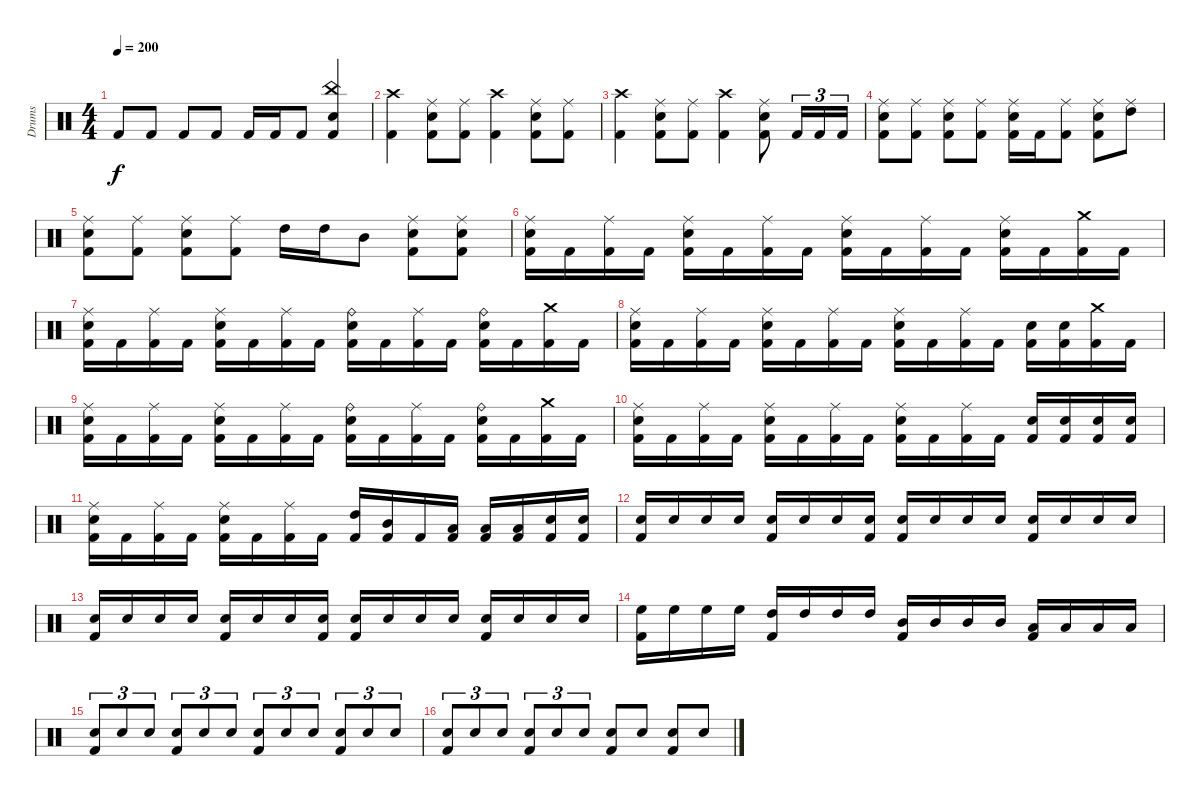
\track ("Drums" "Drums") {instrument percussion}
\staff {score}
\articulation defaults
\ts (4 4)
\tempo 200
\clef neutral
\ks c "Kick (hit) 2".8{dy f} "Kick (hit) 2".8 "Kick (hit) 2".8 "Kick (hit) 2".8 "Kick (hit) 2".16 "Kick (hit) 2".16 "Kick (hit) 2".8
("China (hit)" "Electric Snare (hit)" "Kick (hit) 2").4 |
("Crash high (hit)" "Kick (hit) 2").4 ("Ride (middle)" "Electric Snare (hit)" "Kick (hit) 2").8 ("Ride (middle)" "Kick (hit) 2").8 ("Crash high (hit)" "Kick (hit) 2").4 ("Ride (middle)" "Electric Snare (hit)" "Kick (hit) 2").8 ("Ride (middle)" "Kick (hit) 2").8 |
("Crash high (hit)" "Kick (hit) 2").4 ("Ride (middle)" "Electric Snare (hit)" "Kick (hit) 2").8 ("Ride (middle)" "Kick (hit) 2").8 ("Crash high (hit)" "Kick (hit) 2").4 ("Ride (middle)" "Electric Snare (hit)" "Kick (hit) 2").8 "Kick (hit) 2".16{tu (3 2)} "Kick (hit) 2".16{tu (3 2)} "Kick (hit) 2".16{tu (3 2)} |
("Ride (middle)" "Electric Snare (hit)" "Kick (hit) 2").8 ("Ride (middle)" "Kick (hit) 2").8 ("Ride (middle)" "Electric Snare (hit)" "Kick (hit) 2").8 ("Ride (middle)" "Kick (hit) 2").8 ("Ride (middle)" "Electric Snare (hit)" "Kick (hit) 2").16 "Kick (hit) 2".16 ("Ride (middle)" "Kick (hit) 2").8 ("Ride (middle)" "Electric Snare (hit)" "Kick (hit) 2").8 ("Ride (middle)" "High Tom (hit)").8 |
("Ride (middle)" "Electric Snare (hit)" "Kick (hit) 2").8 ("Ride (middle)" "Kick (hit) 2").8 ("Ride (middle)" "Electric Snare (hit)" "Kick (hit) 2").8 ("Ride (middle)" "Kick (hit) 2").8 "High Tom (hit)".16 "High Tom (hit)".16 "Mid Tom (hit)".8 ("Ride (middle)" "Electric Snare (hit)" "Kick (hit) 2").8 ("Ride (middle)" "Electric Snare (hit)" "Kick (hit) 2").8 |
("Ride (middle)" "Electric Snare (hit)" "Kick (hit) 2").16 "Kick (hit) 2".16 ("Ride (middle)" "Kick (hit) 2").16 "Kick (hit) 2".16 ("Ride (middle)" "Electric Snare (hit)" "Kick (hit) 2").16 "Kick (hit) 2".16 ("Ride (middle)" "Kick (hit) 2").16 "Kick (hit) 2".16 ("Ride (middle)" "Electric Snare (hit)" "Kick (hit) 2").16 "Kick (hit) 2".16 ("Ride (middle)" "Kick (hit) 2").16 "Kick (hit) 2".16 ("Ride (middle)" "Electric Snare (hit)" "Kick (hit) 2").16 "Kick (hit) 2".16 ("Crash medium (hit)" "Kick (hit) 2").16 "Kick (hit) 2".16 |
("Ride (middle)" "Electric Snare (hit)" "Kick (hit) 2").16 "Kick (hit) 2".16 ("Ride (middle)" "Kick (hit) 2").16 "Kick (hit) 2".16 ("Ride (middle)" "Electric Snare (hit)" "Kick (hit) 2").16 "Kick (hit) 2".16 ("Ride (middle)" "Kick (hit) 2").16 "Kick (hit) 2".16 ("Ride (bell)" "Electric Snare (hit)" "Kick (hit) 2").16 "Kick (hit) 2".16 ("Ride (middle)" "Kick (hit) 2").16 "Kick (hit) 2".16 ("Ride (bell)" "Electric Snare (hit)" "Kick (hit) 2").16 "Kick (hit) 2".16 ("Crash medium (hit)" "Kick (hit) 2").16 "Kick (hit) 2".16 |
("Ride (middle)" "Electric Snare (hit)" "Kick (hit) 2").16 "Kick (hit) 2".16 ("Ride (middle)" "Kick (hit) 2").16 "Kick (hit) 2".16 ("Ride (middle)" "Electric Snare (hit)" "Kick (hit) 2").16 "Kick (hit) 2".16 ("Ride (middle)" "Kick (hit) 2").16 "Kick (hit) 2".16 ("Ride (middle)" "Electric Snare (hit)" "Kick (hit) 2").16 "Kick (hit) 2".16 ("Ride (middle)" "Kick (hit) 2").16 "Kick (hit) 2".16 ("Electric Snare (hit)" "Kick (hit) 2").16 ("Electric Snare (hit)" "Kick (hit) 2").16 ("Crash medium (hit)" "Kick (hit) 2").16 "Kick (hit) 2".16 |
("Ride (middle)" "Electric Snare (hit)" "Kick (hit) 2").16 "Kick (hit) 2".16 ("Ride (middle)" "Kick (hit) 2").16 "Kick (hit) 2".16 ("Ride (middle)" "Electric Snare (hit)" "Kick (hit) 2").16 "Kick (hit) 2".16 ("Ride (middle)" "Kick (hit) 2").16 "Kick (hit) 2".16 ("Ride (bell)" "Electric Snare (hit)" "Kick (hit) 2").16 "Kick (hit) 2".16 ("Ride (middle)" "Kick (hit) 2").16 "Kick (hit) 2".16 ("Ride (bell)" "Electric Snare (hit)" "Kick (hit) 2").16 "Kick (hit) 2".16 ("Crash medium (hit)" "Kick (hit) 2").16 "Kick (hit) 2".16 |
("Ride (middle)" "Electric Snare (hit)" "Kick (hit) 2").16 "Kick (hit) 2".16 ("Ride (middle)" "Kick (hit) 2").16 "Kick (hit) 2".16 ("Ride (middle)" "Electric Snare (hit)" "Kick (hit) 2").16 "Kick (hit) 2".16 ("Ride (middle)" "Kick (hit) 2").16 "Kick (hit) 2".16 ("Ride (middle)" "Electric Snare (hit)" "Kick (hit) 2").16 "Kick (hit) 2".16 ("Ride (middle)" "Kick (hit) 2").16 "Kick (hit) 2".16 ("Electric Snare (hit)" "Kick (hit) 2").16 ("Electric Snare (hit)" "Kick (hit) 2").16 ("Electric Snare (hit)" "Kick (hit) 2").16 ("Electric Snare (hit)" "Kick (hit) 2").16 |
("Ride (middle)" "Electric Snare (hit)" "Kick (hit) 2").16 "Kick (hit) 2".16 ("Ride (middle)" "Kick (hit) 2").16 "Kick (hit) 2".16 ("Ride (middle)" "Electric Snare (hit)" "Kick (hit) 2").16 "Kick (hit) 2".16 ("Ride (middle)" "Kick (hit) 2").16 "Kick (hit) 2".16 ("High Tom (hit)" "Kick (hit) 2").16 ("Mid Tom (hit)" "Kick (hit) 2").16 "Kick (hit) 2".16 ("Low Tom (hit)" "Kick (hit) 2").16 ("Low Tom (hit)" "Kick (hit) 2").16 ("Low Tom (hit)" "Kick (hit) 2").16 ("Electric Snare (hit)" "Kick (hit) 2").16 ("Electric Snare (hit)" "Kick (hit) 2").16 |
("Electric Snare (hit)" "Kick (hit) 2").16 "Electric Snare (hit)".16 "Electric Snare (hit)".16 "Electric Snare (hit)".16 ("Electric Snare (hit)" "Kick (hit) 2").16 "Electric Snare (hit)".16 "Electric Snare (hit)".16 ("Electric Snare (hit)" "Kick (hit) 2").16 ("Electric Snare (hit)" "Kick (hit) 2").16 "Electric Snare (hit)".16 "Electric Snare (hit)".16 "Electric Snare (hit)".16 ("Electric Snare (hit)" "Kick (hit) 2").16 "Electric Snare (hit)".16 "Electric Snare (hit)".16 "Electric Snare (hit)".16 |
("Electric Snare (hit)" "Kick (hit) 2").16 "Electric Snare (hit)".16 "Electric Snare (hit)".16 "Electric Snare (hit)".16 ("Electric Snare (hit)" "Kick (hit) 2").16 "Electric Snare (hit)".16 "Electric Snare (hit)".16 ("Electric Snare (hit)" "Kick (hit) 2").16 ("Electric Snare (hit)" "Kick (hit) 2").16 "Electric Snare (hit)".16 "Electric Snare (hit)".16 "Electric Snare (hit)".16 ("Electric Snare (hit)" "Kick (hit) 2").16 "Electric Snare (hit)".16 "Electric Snare (hit)".16 "Electric Snare (hit)".16 |
("High Floor Tom (hit)" "Kick (hit) 2").16 "High Floor Tom (hit)".16 "High Floor Tom (hit)".16 "High Floor Tom (hit)".16 ("High Tom (hit)" "Kick (hit) 2").16 "High Tom (hit)".16 "High Tom (hit)".16 "High Tom (hit)".16 ("Mid Tom (hit)" "Kick (hit) 2").16 "Mid Tom (hit)".16 "Mid Tom (hit)".16 "Mid Tom (hit)".16 ("Low Tom (hit)" "Kick (hit) 2").16 "Low Tom (hit)".16 "Low Tom (hit)".16 "Low Tom (hit)".16 |
("Electric Snare (hit)" "Kick (hit) 2").8{tu (3 2)} "Electric Snare (hit)".8{tu (3 2)} "Electric Snare (hit)".8{tu (3 2)} ("Electric Snare (hit)" "Kick (hit) 2").8{tu (3 2)} "Electric Snare (hit)".8{tu (3 2)} "Electric Snare (hit)".8{tu (3 2)} ("Electric Snare (hit)" "Kick (hit) 2").8{tu (3 2)} "Electric Snare (hit)".8{tu (3 2)} "Electric Snare (hit)".8{tu (3 2)} ("Electric Snare (hit)" "Kick (hit) 2").8{tu (3 2)} "Electric Snare (hit)".8{tu (3 2)} "Electric Snare (hit)".8{tu (3 2)} |
("Electric Snare (hit)" "Kick (hit) 2").8{tu (3 2)} "Electric Snare (hit)".8{tu (3 2)} "Electric Snare (hit)".8{tu (3 2)} ("Electric Snare (hit)" "Kick (hit) 2").8{tu (3 2)} "Electric Snare (hit)".8{tu (3 2)} "Electric Snare (hit)".8{tu (3 2)} ("Electric Snare (hit)" "Kick (hit) 2").8 "Electric Snare (hit)".8 ("Electric Snare (hit)" "Kick (hit) 2").8 "Electric Snare (hit)".8
